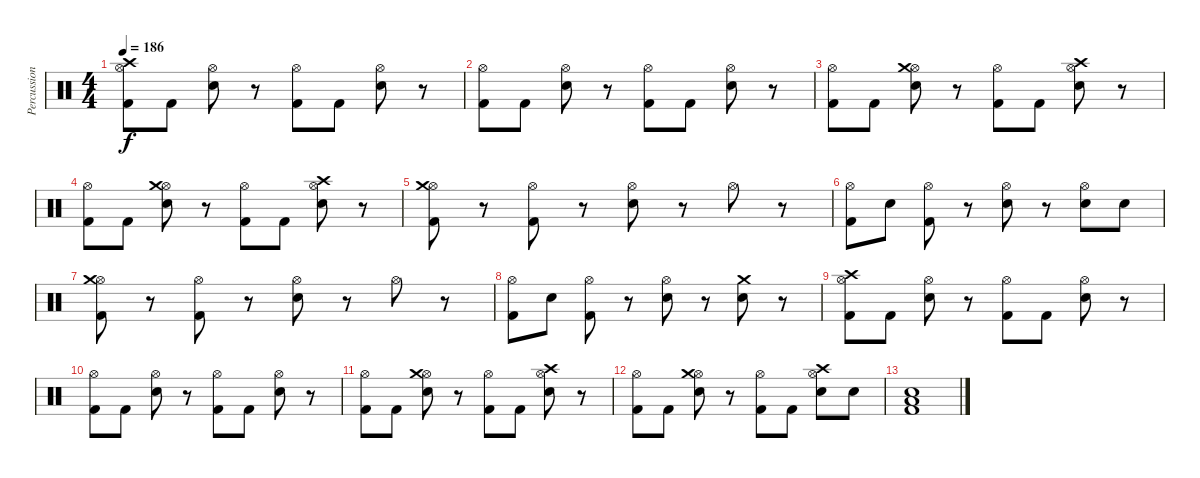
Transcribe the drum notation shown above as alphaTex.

\track ("Percussion" "Percussion") {instrument percussion}
\staff {score}
\articulation defaults
\ts (4 4)
\tempo 186
\clef neutral
\ks c
("Kick (hit) 2" "Hi-Hat (open)" "Crash high (hit)").8{dy f} "Kick (hit) 2".8 ("Electric Snare (hit)" "Hi-Hat (open)").8 r.8 ("Kick (hit) 2" "Hi-Hat (open)").8 "Kick (hit) 2".8 ("Electric Snare (hit)" "Hi-Hat (open)").8 r.8 |
("Kick (hit) 2" "Hi-Hat (open)").8 "Kick (hit) 2".8 ("Electric Snare (hit)" "Hi-Hat (open)").8 r.8 ("Kick (hit) 2" "Hi-Hat (open)").8 "Kick (hit) 2".8 ("Electric Snare (hit)" "Hi-Hat (open)").8 r.8 |
("Kick (hit) 2" "Hi-Hat (open)").8 "Kick (hit) 2".8 ("Electric Snare (hit)" "Hi-Hat (open)" "Crash medium (hit)").8 r.8 ("Kick (hit) 2" "Hi-Hat (open)").8 "Kick (hit) 2".8 ("Electric Snare (hit)" "Hi-Hat (open)" "Crash high (hit)").8 r.8 |
("Kick (hit) 2" "Hi-Hat (open)").8 "Kick (hit) 2".8 ("Electric Snare (hit)" "Hi-Hat (open)" "Crash medium (hit)").8 r.8 ("Kick (hit) 2" "Hi-Hat (open)").8 "Kick (hit) 2".8 ("Electric Snare (hit)" "Hi-Hat (open)" "Crash high (hit)").8 r.8 |
("Kick (hit) 2" "Hi-Hat (open)" "Crash medium (hit)").8 r.8 ("Kick (hit) 2" "Hi-Hat (open)").8 r.8 ("Electric Snare (hit)" "Hi-Hat (open)").8 r.8 "Hi-Hat (open)".8 r.8 |
("Kick (hit) 2" "Hi-Hat (open)").8 "Electric Snare (hit)".8 ("Kick (hit) 2" "Hi-Hat (open)").8 r.8 ("Electric Snare (hit)" "Hi-Hat (open)").8 r.8 ("Electric Snare (hit)" "Hi-Hat (open)").8 "Electric Snare (hit)".8 |
("Kick (hit) 2" "Hi-Hat (open)" "Crash medium (hit)").8 r.8 ("Kick (hit) 2" "Hi-Hat (open)").8 r.8 ("Electric Snare (hit)" "Hi-Hat (open)").8 r.8 "Hi-Hat (open)".8 r.8 |
("Kick (hit) 2" "Hi-Hat (open)").8 "Electric Snare (hit)".8 ("Kick (hit) 2" "Hi-Hat (open)").8 r.8 ("Electric Snare (hit)" "Hi-Hat (open)").8 r.8 ("Electric Snare (hit)" "Crash medium (hit)").8 r.8 |
("Kick (hit) 2" "Hi-Hat (open)" "Crash high (hit)").8 "Kick (hit) 2".8 ("Electric Snare (hit)" "Hi-Hat (open)").8 r.8 ("Kick (hit) 2" "Hi-Hat (open)").8 "Kick (hit) 2".8 ("Electric Snare (hit)" "Hi-Hat (open)").8 r.8 |
("Kick (hit) 2" "Hi-Hat (open)").8 "Kick (hit) 2".8 ("Electric Snare (hit)" "Hi-Hat (open)").8 r.8 ("Kick (hit) 2" "Hi-Hat (open)").8 "Kick (hit) 2".8 ("Electric Snare (hit)" "Hi-Hat (open)").8 r.8 |
("Kick (hit) 2" "Hi-Hat (open)").8 "Kick (hit) 2".8 ("Electric Snare (hit)" "Hi-Hat (open)" "Crash medium (hit)").8 r.8 ("Kick (hit) 2" "Hi-Hat (open)").8 "Kick (hit) 2".8 ("Electric Snare (hit)" "Hi-Hat (open)" "Crash high (hit)").8 r.8 |
("Kick (hit) 2" "Hi-Hat (open)").8 "Kick (hit) 2".8 ("Electric Snare (hit)" "Hi-Hat (open)" "Crash medium (hit)").8 r.8 ("Kick (hit) 2" "Hi-Hat (open)").8 "Kick (hit) 2".8 ("Electric Snare (hit)" "Hi-Hat (open)" "Crash high (hit)").8 "Electric Snare (hit)".8 |
("Kick (hit) 2" "Low Floor Tom (hit)" "Electric Snare (hit)").1
